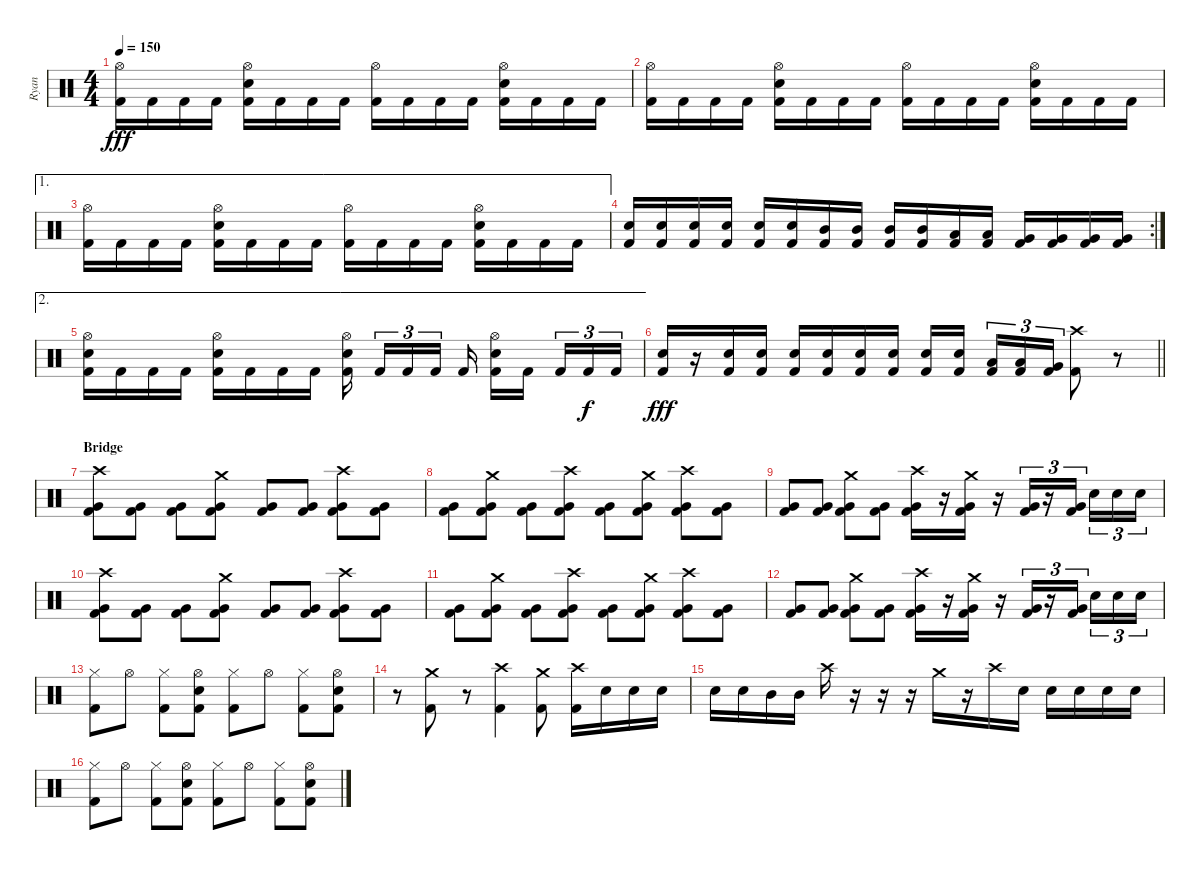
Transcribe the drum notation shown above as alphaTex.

\track ("Ryan" "Ryan") {instrument percussion}
\staff {score}
\articulation defaults
\ts (4 4)
\tempo 150
\clef neutral
\ks c
("Hi-Hat (open)" "Kick (hit) 2").16{dy fff} "Kick (hit) 2".16 "Kick (hit) 2".16 "Kick (hit) 2".16 ("Hi-Hat (open)" "Electric Snare (hit)" "Kick (hit) 2").16 "Kick (hit) 2".16 "Kick (hit) 2".16 "Kick (hit) 2".16 ("Hi-Hat (open)" "Kick (hit) 2").16 "Kick (hit) 2".16 "Kick (hit) 2".16 "Kick (hit) 2".16 ("Hi-Hat (open)" "Electric Snare (hit)" "Kick (hit) 2").16 "Kick (hit) 2".16 "Kick (hit) 2".16 "Kick (hit) 2".16 |
("Hi-Hat (open)" "Kick (hit) 2").16 "Kick (hit) 2".16 "Kick (hit) 2".16 "Kick (hit) 2".16 ("Hi-Hat (open)" "Electric Snare (hit)" "Kick (hit) 2").16 "Kick (hit) 2".16 "Kick (hit) 2".16 "Kick (hit) 2".16 ("Hi-Hat (open)" "Kick (hit) 2").16 "Kick (hit) 2".16 "Kick (hit) 2".16 "Kick (hit) 2".16 ("Hi-Hat (open)" "Electric Snare (hit)" "Kick (hit) 2").16 "Kick (hit) 2".16 "Kick (hit) 2".16 "Kick (hit) 2".16 |
\ae 1
("Hi-Hat (open)" "Kick (hit) 2").16 "Kick (hit) 2".16 "Kick (hit) 2".16 "Kick (hit) 2".16 ("Hi-Hat (open)" "Electric Snare (hit)" "Kick (hit) 2").16 "Kick (hit) 2".16 "Kick (hit) 2".16 "Kick (hit) 2".16 ("Hi-Hat (open)" "Kick (hit) 2").16 "Kick (hit) 2".16 "Kick (hit) 2".16 "Kick (hit) 2".16 ("Hi-Hat (open)" "Electric Snare (hit)" "Kick (hit) 2").16 "Kick (hit) 2".16 "Kick (hit) 2".16 "Kick (hit) 2".16 |
\rc 2
("Electric Snare (hit)" "Kick (hit) 2").16 ("Electric Snare (hit)" "Kick (hit) 2").16 ("Electric Snare (hit)" "Kick (hit) 2").16 ("Electric Snare (hit)" "Kick (hit) 2").16 ("Electric Snare (hit)" "Kick (hit) 2").16 ("Electric Snare (hit)" "Kick (hit) 2").16 ("Mid Tom (hit)" "Kick (hit) 2").16 ("Mid Tom (hit)" "Kick (hit) 2").16 ("Mid Tom (hit)" "Kick (hit) 2").16 ("Mid Tom (hit)" "Kick (hit) 2").16 ("Low Tom (hit)" "Kick (hit) 2").16 ("Low Tom (hit)" "Kick (hit) 2").16 ("Very Low Tom (hit)" "Kick (hit) 2").16 ("Very Low Tom (hit)" "Kick (hit) 2").16 ("Very Low Tom (hit)" "Kick (hit) 2").16 ("Very Low Tom (hit)" "Kick (hit) 2").16 |
\ae 2
("Hi-Hat (open)" "Electric Snare (hit)" "Kick (hit) 2").16 "Kick (hit) 2".16 "Kick (hit) 2".16 "Kick (hit) 2".16 ("Hi-Hat (open)" "Electric Snare (hit)" "Kick (hit) 2").16 "Kick (hit) 2".16 "Kick (hit) 2".16 "Kick (hit) 2".16 ("Hi-Hat (open)" "Electric Snare (hit)" "Kick (hit) 2").16{beam splitsecondary} "Kick (hit) 2".16{tu (3 2)} "Kick (hit) 2".16{tu (3 2)} "Kick (hit) 2".16{tu (3 2) beam splitsecondary} "Kick (hit) 2".16 ("Hi-Hat (open)" "Electric Snare (hit)" "Kick (hit) 2").16 "Kick (hit) 2".16{beam splitsecondary} "Kick (hit) 2".16{tu (3 2)} "Kick (hit) 2".16{tu (3 2) dy f} "Kick (hit) 2".16{tu (3 2)} |
\barLineRight lightlight
("Electric Snare (hit)" "Kick (hit) 2").16{dy fff} r.16 ("Electric Snare (hit)" "Kick (hit) 2").16 ("Electric Snare (hit)" "Kick (hit) 2").16 ("Electric Snare (hit)" "Kick (hit) 2").16 ("Electric Snare (hit)" "Kick (hit) 2").16 ("Electric Snare (hit)" "Kick (hit) 2").16 ("Electric Snare (hit)" "Kick (hit) 2").16 ("Electric Snare (hit)" "Kick (hit) 2").16 ("Electric Snare (hit)" "Kick (hit) 2").16{beam splitsecondary} ("Low Tom (hit)" "Kick (hit) 2").16{tu (3 2)} ("Low Tom (hit)" "Kick (hit) 2").16{tu (3 2)} ("Very Low Tom (hit)" "Kick (hit) 2").16{tu (3 2)} ("Crash high (hit)" "Kick (hit) 2").8 r.8 |
\section ("" "Bridge")
("Crash high (hit)" "Very Low Tom (hit)" "Kick (hit) 2").8 ("Very Low Tom (hit)" "Kick (hit) 2").8 ("Very Low Tom (hit)" "Kick (hit) 2").8 ("Crash medium (hit)" "Very Low Tom (hit)" "Kick (hit) 2").8 ("Very Low Tom (hit)" "Kick (hit) 2").8 ("Very Low Tom (hit)" "Kick (hit) 2").8 ("Crash high (hit)" "Very Low Tom (hit)" "Kick (hit) 2").8 ("Very Low Tom (hit)" "Kick (hit) 2").8 |
("Very Low Tom (hit)" "Kick (hit) 2").8 ("Crash medium (hit)" "Very Low Tom (hit)" "Kick (hit) 2").8 ("Very Low Tom (hit)" "Kick (hit) 2").8 ("Crash high (hit)" "Very Low Tom (hit)" "Kick (hit) 2").8 ("Very Low Tom (hit)" "Kick (hit) 2").8 ("Crash medium (hit)" "Very Low Tom (hit)" "Kick (hit) 2").8 ("Crash high (hit)" "Very Low Tom (hit)" "Kick (hit) 2").8 ("Very Low Tom (hit)" "Kick (hit) 2").8 |
("Very Low Tom (hit)" "Kick (hit) 2").8 ("Very Low Tom (hit)" "Kick (hit) 2").8 ("Crash medium (hit)" "Very Low Tom (hit)" "Kick (hit) 2").8 ("Very Low Tom (hit)" "Kick (hit) 2").8 ("Crash high (hit)" "Very Low Tom (hit)" "Kick (hit) 2").16 r.16 ("Crash medium (hit)" "Very Low Tom (hit)" "Kick (hit) 2").16 r.16 ("Very Low Tom (hit)" "Kick (hit) 2").16{tu (3 2)} r.16{tu (3 2)} ("Very Low Tom (hit)" "Kick (hit) 2").16{tu (3 2) beam splitsecondary} "Electric Snare (hit)".16{tu (3 2)} "Electric Snare (hit)".16{tu (3 2)} "Electric Snare (hit)".16{tu (3 2)} |
("Crash high (hit)" "Very Low Tom (hit)" "Kick (hit) 2").8 ("Very Low Tom (hit)" "Kick (hit) 2").8 ("Very Low Tom (hit)" "Kick (hit) 2").8 ("Crash medium (hit)" "Very Low Tom (hit)" "Kick (hit) 2").8 ("Very Low Tom (hit)" "Kick (hit) 2").8 ("Very Low Tom (hit)" "Kick (hit) 2").8 ("Crash high (hit)" "Very Low Tom (hit)" "Kick (hit) 2").8 ("Very Low Tom (hit)" "Kick (hit) 2").8 |
("Very Low Tom (hit)" "Kick (hit) 2").8 ("Crash medium (hit)" "Very Low Tom (hit)" "Kick (hit) 2").8 ("Very Low Tom (hit)" "Kick (hit) 2").8 ("Crash high (hit)" "Very Low Tom (hit)" "Kick (hit) 2").8 ("Very Low Tom (hit)" "Kick (hit) 2").8 ("Crash medium (hit)" "Very Low Tom (hit)" "Kick (hit) 2").8 ("Crash high (hit)" "Very Low Tom (hit)" "Kick (hit) 2").8 ("Very Low Tom (hit)" "Kick (hit) 2").8 |
("Very Low Tom (hit)" "Kick (hit) 2").8 ("Very Low Tom (hit)" "Kick (hit) 2").8 ("Crash medium (hit)" "Very Low Tom (hit)" "Kick (hit) 2").8 ("Very Low Tom (hit)" "Kick (hit) 2").8 ("Crash high (hit)" "Very Low Tom (hit)" "Kick (hit) 2").16 r.16 ("Crash medium (hit)" "Very Low Tom (hit)" "Kick (hit) 2").16 r.16 ("Very Low Tom (hit)" "Kick (hit) 2").16{tu (3 2)} r.16{tu (3 2)} ("Very Low Tom (hit)" "Kick (hit) 2").16{tu (3 2) beam splitsecondary} "Electric Snare (hit)".16{tu (3 2)} "Electric Snare (hit)".16{tu (3 2)} "Electric Snare (hit)".16{tu (3 2)} |
("Hi-Hat (closed)" "Kick (hit) 2").8 "Hi-Hat (open)".8 ("Hi-Hat (closed)" "Kick (hit) 2").8 ("Hi-Hat (open)" "Electric Snare (hit)" "Kick (hit) 2").8 ("Hi-Hat (closed)" "Kick (hit) 2").8 "Hi-Hat (open)".8 ("Hi-Hat (closed)" "Kick (hit) 2").8 ("Hi-Hat (open)" "Electric Snare (hit)" "Kick (hit) 2").8 |
r.8 ("Crash medium (hit)" "Kick (hit) 2").8 r.8 ("Crash high (hit)" "Kick (hit) 2").4 ("Crash medium (hit)" "Kick (hit) 2").8 ("Crash high (hit)" "Kick (hit) 2").16 "Electric Snare (hit)".16 "Electric Snare (hit)".16 "Electric Snare (hit)".16 |
"Electric Snare (hit)".16 "Electric Snare (hit)".16 "Mid Tom (hit)".16 "Mid Tom (hit)".16 "Crash high (hit)".16 r.16 r.16 r.16 "Crash medium (hit)".16 r.16 "Crash high (hit)".16 "Electric Snare (hit)".16 "Electric Snare (hit)".16 "Electric Snare (hit)".16 "Electric Snare (hit)".16 "Electric Snare (hit)".16 |
("Hi-Hat (closed)" "Kick (hit) 2").8 "Hi-Hat (open)".8 ("Hi-Hat (closed)" "Kick (hit) 2").8 ("Hi-Hat (open)" "Electric Snare (hit)" "Kick (hit) 2").8 ("Hi-Hat (closed)" "Kick (hit) 2").8 "Hi-Hat (open)".8 ("Hi-Hat (closed)" "Kick (hit) 2").8 ("Hi-Hat (open)" "Electric Snare (hit)" "Kick (hit) 2").8
